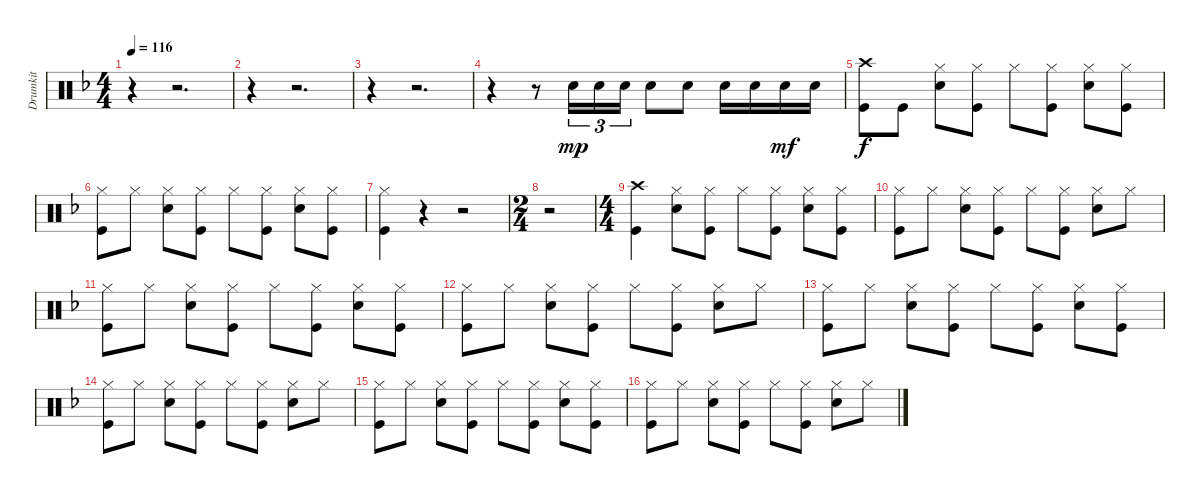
\track ("Drumkit" "Drumkit") {instrument percussion}
\staff {score}
\articulation defaults
\ts (4 4)
\tempo 116
\clef neutral
\ks dminor
r.4{dy mp} r.2{d} |
r.4 r.2{d} |
r.4 r.2{d} |
r.4 r.8 "Snare (hit) 2".16{tu (3 2)} "Snare (hit) 2".16{tu (3 2)} "Snare (hit) 2".16{tu (3 2)} "Snare (hit) 2".8 "Snare (hit) 2".8 "Snare (hit) 2".16 "Snare (hit) 2".16 "Snare (hit) 2".16{dy mf} "Snare (hit) 2".16 |
("Crash high (hit)" "Kick (hit)").8{dy f} "Kick (hit)".8 ("Hi-Hat (closed)" "Snare (hit) 2").8 ("Hi-Hat (closed)" "Kick (hit)").8 "Hi-Hat (closed)".8 ("Hi-Hat (closed)" "Kick (hit)").8 ("Hi-Hat (closed)" "Snare (hit) 2").8 ("Hi-Hat (closed)" "Kick (hit)").8 |
("Hi-Hat (closed)" "Kick (hit)").8 "Hi-Hat (closed)".8 ("Hi-Hat (closed)" "Snare (hit) 2").8 ("Hi-Hat (closed)" "Kick (hit)").8 "Hi-Hat (closed)".8 ("Hi-Hat (closed)" "Kick (hit)").8 ("Hi-Hat (closed)" "Snare (hit) 2").8 ("Hi-Hat (closed)" "Kick (hit)").8 |
("Hi-Hat (closed)" "Kick (hit)").4 r.4 r.2 |
\ts (2 4)
r.2 |
\ts (4 4)
("Crash high (hit)" "Kick (hit)").4 ("Hi-Hat (closed)" "Snare (hit) 2").8 ("Hi-Hat (closed)" "Kick (hit)").8 "Hi-Hat (closed)".8 ("Hi-Hat (closed)" "Kick (hit)").8 ("Hi-Hat (closed)" "Snare (hit) 2").8 ("Hi-Hat (closed)" "Kick (hit)").8 |
("Hi-Hat (closed)" "Kick (hit)").8 "Hi-Hat (closed)".8 ("Hi-Hat (closed)" "Snare (hit) 2").8 ("Hi-Hat (closed)" "Kick (hit)").8 "Hi-Hat (closed)".8 ("Hi-Hat (closed)" "Kick (hit)").8 ("Hi-Hat (closed)" "Snare (hit) 2").8 "Hi-Hat (closed)".8 |
("Hi-Hat (closed)" "Kick (hit)").8 "Hi-Hat (closed)".8 ("Hi-Hat (closed)" "Snare (hit) 2").8 ("Hi-Hat (closed)" "Kick (hit)").8 "Hi-Hat (closed)".8 ("Hi-Hat (closed)" "Kick (hit)").8 ("Hi-Hat (closed)" "Snare (hit) 2").8 ("Hi-Hat (closed)" "Kick (hit)").8 |
("Hi-Hat (closed)" "Kick (hit)").8 "Hi-Hat (closed)".8 ("Hi-Hat (closed)" "Snare (hit) 2").8 ("Hi-Hat (closed)" "Kick (hit)").8 "Hi-Hat (closed)".8 ("Hi-Hat (closed)" "Kick (hit)").8 ("Hi-Hat (closed)" "Snare (hit) 2").8 "Hi-Hat (closed)".8 |
("Hi-Hat (closed)" "Kick (hit)").8 "Hi-Hat (closed)".8 ("Hi-Hat (closed)" "Snare (hit) 2").8 ("Hi-Hat (closed)" "Kick (hit)").8 "Hi-Hat (closed)".8 ("Hi-Hat (closed)" "Kick (hit)").8 ("Hi-Hat (closed)" "Snare (hit) 2").8 ("Hi-Hat (closed)" "Kick (hit)").8 |
("Hi-Hat (closed)" "Kick (hit)").8 "Hi-Hat (closed)".8 ("Hi-Hat (closed)" "Snare (hit) 2").8 ("Hi-Hat (closed)" "Kick (hit)").8 "Hi-Hat (closed)".8 ("Hi-Hat (closed)" "Kick (hit)").8 ("Hi-Hat (closed)" "Snare (hit) 2").8 "Hi-Hat (closed)".8 |
("Hi-Hat (closed)" "Kick (hit)").8 "Hi-Hat (closed)".8 ("Hi-Hat (closed)" "Snare (hit) 2").8 ("Hi-Hat (closed)" "Kick (hit)").8 "Hi-Hat (closed)".8 ("Hi-Hat (closed)" "Kick (hit)").8 ("Hi-Hat (closed)" "Snare (hit) 2").8 ("Hi-Hat (closed)" "Kick (hit)").8 |
("Hi-Hat (closed)" "Kick (hit)").8 "Hi-Hat (closed)".8 ("Hi-Hat (closed)" "Snare (hit) 2").8 ("Hi-Hat (closed)" "Kick (hit)").8 "Hi-Hat (closed)".8 ("Hi-Hat (closed)" "Kick (hit)").8 ("Hi-Hat (closed)" "Snare (hit) 2").8 "Hi-Hat (closed)".8
